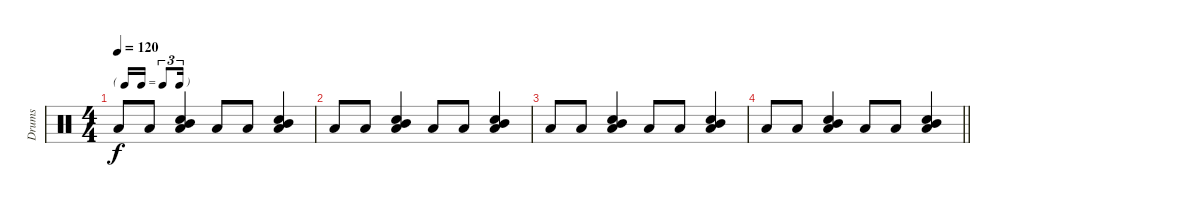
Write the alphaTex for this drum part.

\track ("Drums" "Drums") {instrument percussion}
\staff {score}
\articulation defaults
\ts (4 4)
\tf triplet16th
\tempo 120
\clef neutral
\ks c "Low Tom (hit)".8{dy f} "Low Tom (hit)".8
("Hand Clap (hit)" "Mid Tom (hit)" "Low Tom (hit)").4 "Low Tom (hit)".8 "Low Tom (hit)".8 ("Hand Clap (hit)" "Mid Tom (hit)" "Low Tom (hit)").4 |
"Low Tom (hit)".8 "Low Tom (hit)".8 ("Hand Clap (hit)" "Mid Tom (hit)" "Low Tom (hit)").4 "Low Tom (hit)".8 "Low Tom (hit)".8 ("Hand Clap (hit)" "Mid Tom (hit)" "Low Tom (hit)").4 |
"Low Tom (hit)".8 "Low Tom (hit)".8 ("Hand Clap (hit)" "Mid Tom (hit)" "Low Tom (hit)").4 "Low Tom (hit)".8 "Low Tom (hit)".8 ("Hand Clap (hit)" "Mid Tom (hit)" "Low Tom (hit)").4 |
\barLineRight lightlight "Low Tom (hit)".8 "Low Tom (hit)".8
("Hand Clap (hit)" "Mid Tom (hit)" "Low Tom (hit)").4 "Low Tom (hit)".8 "Low Tom (hit)".8 ("Hand Clap (hit)" "Mid Tom (hit)" "Low Tom (hit)").4
